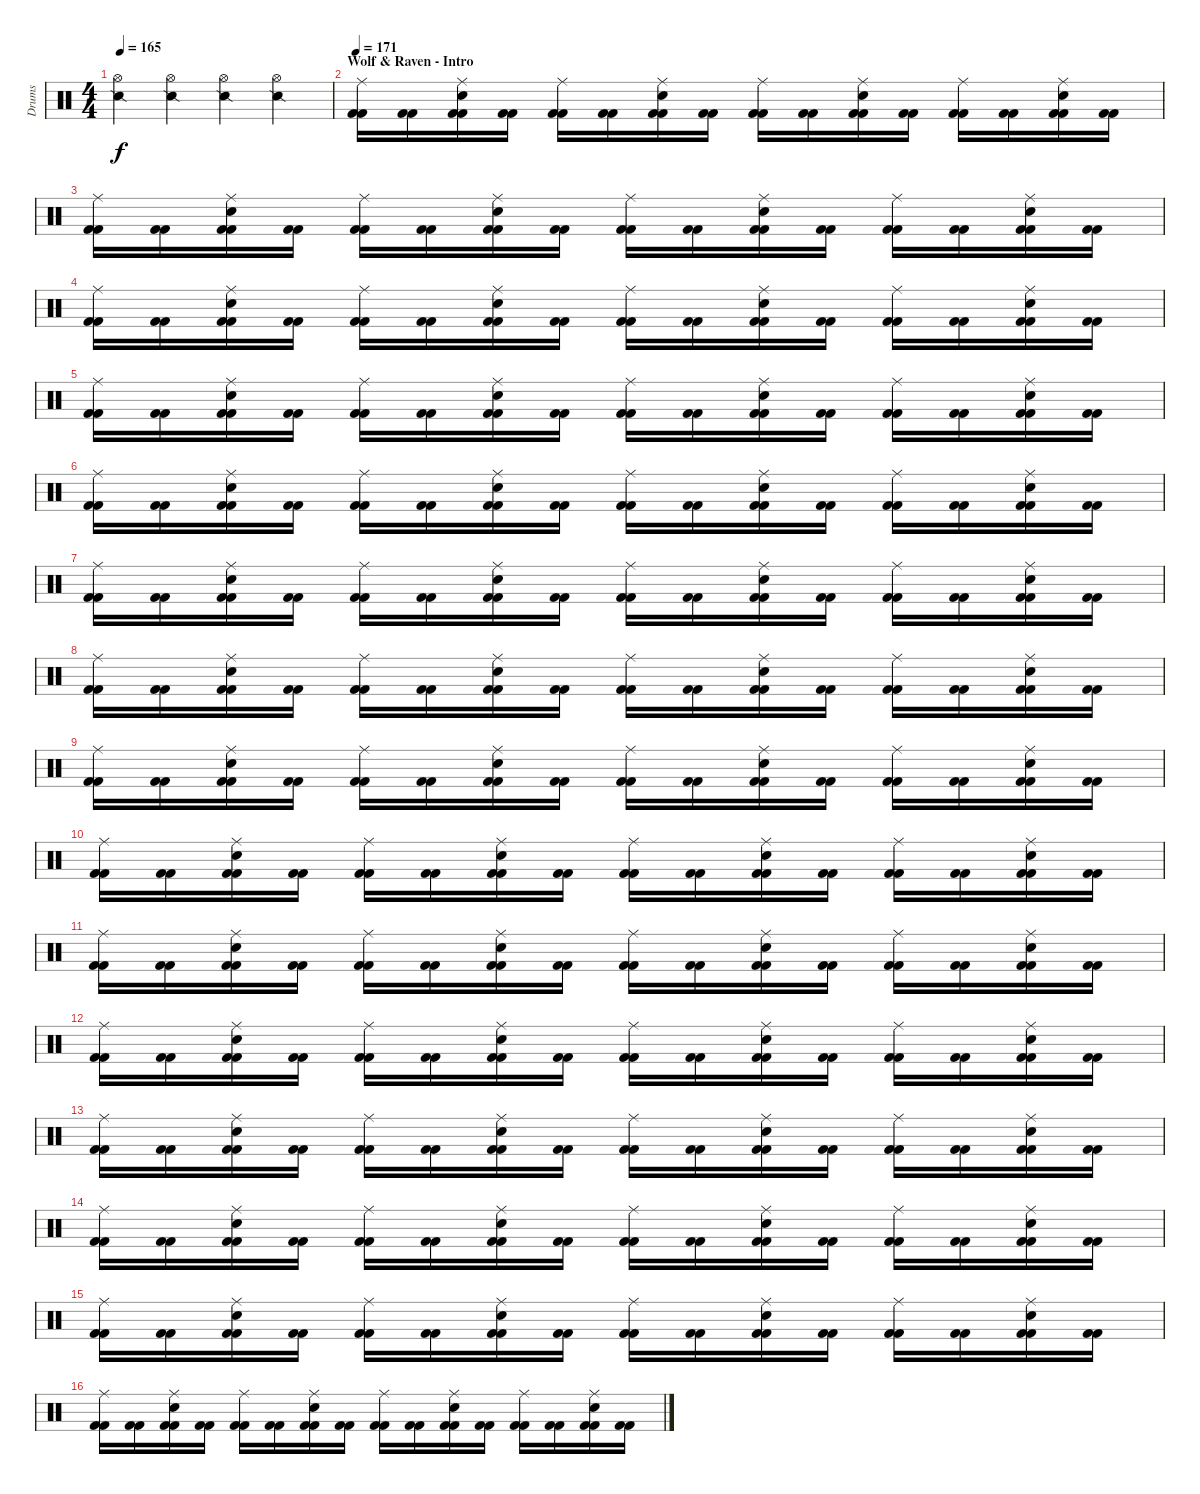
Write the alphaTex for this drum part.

\track ("Drums" "Drums") {instrument percussion}
\staff {score}
\articulation defaults
\ts (4 4)
\tempo 165
\clef neutral
\ks c
("Snare (side stick) 2" "Hi-Hat (open)").4{dy f} ("Snare (side stick) 2" "Hi-Hat (open)").4 ("Snare (side stick) 2" "Hi-Hat (open)").4 ("Snare (side stick) 2" "Hi-Hat (open)").4 |
\section ("" "Wolf & Raven - Intro")
\tempo 171
("Kick (hit) 2" "Kick (hit) 2" "Ride (middle)").16 ("Kick (hit) 2" "Kick (hit) 2").16 ("Kick (hit) 2" "Kick (hit) 2" "Electric Snare (hit)" "Ride (middle)").16 ("Kick (hit) 2" "Kick (hit) 2").16 ("Kick (hit) 2" "Kick (hit) 2" "Ride (middle)").16 ("Kick (hit) 2" "Kick (hit) 2").16 ("Kick (hit) 2" "Kick (hit) 2" "Electric Snare (hit)" "Ride (middle)").16 ("Kick (hit) 2" "Kick (hit) 2").16 ("Kick (hit) 2" "Kick (hit) 2" "Ride (middle)").16 ("Kick (hit) 2" "Kick (hit) 2").16 ("Kick (hit) 2" "Kick (hit) 2" "Electric Snare (hit)" "Ride (middle)").16 ("Kick (hit) 2" "Kick (hit) 2").16 ("Kick (hit) 2" "Kick (hit) 2" "Ride (middle)").16 ("Kick (hit) 2" "Kick (hit) 2").16 ("Kick (hit) 2" "Kick (hit) 2" "Electric Snare (hit)" "Ride (middle)").16 ("Kick (hit) 2" "Kick (hit) 2").16 |
("Kick (hit) 2" "Kick (hit) 2" "Ride (middle)").16 ("Kick (hit) 2" "Kick (hit) 2").16 ("Kick (hit) 2" "Kick (hit) 2" "Electric Snare (hit)" "Ride (middle)").16 ("Kick (hit) 2" "Kick (hit) 2").16 ("Kick (hit) 2" "Kick (hit) 2" "Ride (middle)").16 ("Kick (hit) 2" "Kick (hit) 2").16 ("Kick (hit) 2" "Kick (hit) 2" "Electric Snare (hit)" "Ride (middle)").16 ("Kick (hit) 2" "Kick (hit) 2").16 ("Kick (hit) 2" "Kick (hit) 2" "Ride (middle)").16 ("Kick (hit) 2" "Kick (hit) 2").16 ("Kick (hit) 2" "Kick (hit) 2" "Electric Snare (hit)" "Ride (middle)").16 ("Kick (hit) 2" "Kick (hit) 2").16 ("Kick (hit) 2" "Kick (hit) 2" "Ride (middle)").16 ("Kick (hit) 2" "Kick (hit) 2").16 ("Kick (hit) 2" "Kick (hit) 2" "Electric Snare (hit)" "Ride (middle)").16 ("Kick (hit) 2" "Kick (hit) 2").16 |
("Kick (hit) 2" "Kick (hit) 2" "Ride (middle)").16 ("Kick (hit) 2" "Kick (hit) 2").16 ("Kick (hit) 2" "Kick (hit) 2" "Electric Snare (hit)" "Ride (middle)").16 ("Kick (hit) 2" "Kick (hit) 2").16 ("Kick (hit) 2" "Kick (hit) 2" "Ride (middle)").16 ("Kick (hit) 2" "Kick (hit) 2").16 ("Kick (hit) 2" "Kick (hit) 2" "Electric Snare (hit)" "Ride (middle)").16 ("Kick (hit) 2" "Kick (hit) 2").16 ("Kick (hit) 2" "Kick (hit) 2" "Ride (middle)").16 ("Kick (hit) 2" "Kick (hit) 2").16 ("Kick (hit) 2" "Kick (hit) 2" "Electric Snare (hit)" "Ride (middle)").16 ("Kick (hit) 2" "Kick (hit) 2").16 ("Kick (hit) 2" "Kick (hit) 2" "Ride (middle)").16 ("Kick (hit) 2" "Kick (hit) 2").16 ("Kick (hit) 2" "Kick (hit) 2" "Electric Snare (hit)" "Ride (middle)").16 ("Kick (hit) 2" "Kick (hit) 2").16 |
("Kick (hit) 2" "Kick (hit) 2" "Ride (middle)").16 ("Kick (hit) 2" "Kick (hit) 2").16 ("Kick (hit) 2" "Kick (hit) 2" "Electric Snare (hit)" "Ride (middle)").16 ("Kick (hit) 2" "Kick (hit) 2").16 ("Kick (hit) 2" "Kick (hit) 2" "Ride (middle)").16 ("Kick (hit) 2" "Kick (hit) 2").16 ("Kick (hit) 2" "Kick (hit) 2" "Electric Snare (hit)" "Ride (middle)").16 ("Kick (hit) 2" "Kick (hit) 2").16 ("Kick (hit) 2" "Kick (hit) 2" "Ride (middle)").16 ("Kick (hit) 2" "Kick (hit) 2").16 ("Kick (hit) 2" "Kick (hit) 2" "Electric Snare (hit)" "Ride (middle)").16 ("Kick (hit) 2" "Kick (hit) 2").16 ("Kick (hit) 2" "Kick (hit) 2" "Ride (middle)").16 ("Kick (hit) 2" "Kick (hit) 2").16 ("Kick (hit) 2" "Kick (hit) 2" "Electric Snare (hit)" "Ride (middle)").16 ("Kick (hit) 2" "Kick (hit) 2").16 |
("Kick (hit) 2" "Kick (hit) 2" "Ride (middle)").16 ("Kick (hit) 2" "Kick (hit) 2").16 ("Kick (hit) 2" "Kick (hit) 2" "Electric Snare (hit)" "Ride (middle)").16 ("Kick (hit) 2" "Kick (hit) 2").16 ("Kick (hit) 2" "Kick (hit) 2" "Ride (middle)").16 ("Kick (hit) 2" "Kick (hit) 2").16 ("Kick (hit) 2" "Kick (hit) 2" "Electric Snare (hit)" "Ride (middle)").16 ("Kick (hit) 2" "Kick (hit) 2").16 ("Kick (hit) 2" "Kick (hit) 2" "Ride (middle)").16 ("Kick (hit) 2" "Kick (hit) 2").16 ("Kick (hit) 2" "Kick (hit) 2" "Electric Snare (hit)" "Ride (middle)").16 ("Kick (hit) 2" "Kick (hit) 2").16 ("Kick (hit) 2" "Kick (hit) 2" "Ride (middle)").16 ("Kick (hit) 2" "Kick (hit) 2").16 ("Kick (hit) 2" "Kick (hit) 2" "Electric Snare (hit)" "Ride (middle)").16 ("Kick (hit) 2" "Kick (hit) 2").16 |
("Kick (hit) 2" "Kick (hit) 2" "Ride (middle)").16 ("Kick (hit) 2" "Kick (hit) 2").16 ("Kick (hit) 2" "Kick (hit) 2" "Electric Snare (hit)" "Ride (middle)").16 ("Kick (hit) 2" "Kick (hit) 2").16 ("Kick (hit) 2" "Kick (hit) 2" "Ride (middle)").16 ("Kick (hit) 2" "Kick (hit) 2").16 ("Kick (hit) 2" "Kick (hit) 2" "Electric Snare (hit)" "Ride (middle)").16 ("Kick (hit) 2" "Kick (hit) 2").16 ("Kick (hit) 2" "Kick (hit) 2" "Ride (middle)").16 ("Kick (hit) 2" "Kick (hit) 2").16 ("Kick (hit) 2" "Kick (hit) 2" "Electric Snare (hit)" "Ride (middle)").16 ("Kick (hit) 2" "Kick (hit) 2").16 ("Kick (hit) 2" "Kick (hit) 2" "Ride (middle)").16 ("Kick (hit) 2" "Kick (hit) 2").16 ("Kick (hit) 2" "Kick (hit) 2" "Electric Snare (hit)" "Ride (middle)").16 ("Kick (hit) 2" "Kick (hit) 2").16 |
("Kick (hit) 2" "Kick (hit) 2" "Ride (middle)").16 ("Kick (hit) 2" "Kick (hit) 2").16 ("Kick (hit) 2" "Kick (hit) 2" "Electric Snare (hit)" "Ride (middle)").16 ("Kick (hit) 2" "Kick (hit) 2").16 ("Kick (hit) 2" "Kick (hit) 2" "Ride (middle)").16 ("Kick (hit) 2" "Kick (hit) 2").16 ("Kick (hit) 2" "Kick (hit) 2" "Electric Snare (hit)" "Ride (middle)").16 ("Kick (hit) 2" "Kick (hit) 2").16 ("Kick (hit) 2" "Kick (hit) 2" "Ride (middle)").16 ("Kick (hit) 2" "Kick (hit) 2").16 ("Kick (hit) 2" "Kick (hit) 2" "Electric Snare (hit)" "Ride (middle)").16 ("Kick (hit) 2" "Kick (hit) 2").16 ("Kick (hit) 2" "Kick (hit) 2" "Ride (middle)").16 ("Kick (hit) 2" "Kick (hit) 2").16 ("Kick (hit) 2" "Kick (hit) 2" "Electric Snare (hit)" "Ride (middle)").16 ("Kick (hit) 2" "Kick (hit) 2").16 |
("Kick (hit) 2" "Kick (hit) 2" "Ride (middle)").16 ("Kick (hit) 2" "Kick (hit) 2").16 ("Kick (hit) 2" "Kick (hit) 2" "Electric Snare (hit)" "Ride (middle)").16 ("Kick (hit) 2" "Kick (hit) 2").16 ("Kick (hit) 2" "Kick (hit) 2" "Ride (middle)").16 ("Kick (hit) 2" "Kick (hit) 2").16 ("Kick (hit) 2" "Kick (hit) 2" "Electric Snare (hit)" "Ride (middle)").16 ("Kick (hit) 2" "Kick (hit) 2").16 ("Kick (hit) 2" "Kick (hit) 2" "Ride (middle)").16 ("Kick (hit) 2" "Kick (hit) 2").16 ("Kick (hit) 2" "Kick (hit) 2" "Electric Snare (hit)" "Ride (middle)").16 ("Kick (hit) 2" "Kick (hit) 2").16 ("Kick (hit) 2" "Kick (hit) 2" "Ride (middle)").16 ("Kick (hit) 2" "Kick (hit) 2").16 ("Kick (hit) 2" "Kick (hit) 2" "Electric Snare (hit)" "Ride (middle)").16 ("Kick (hit) 2" "Kick (hit) 2").16 |
("Kick (hit) 2" "Kick (hit) 2" "Ride (middle)").16 ("Kick (hit) 2" "Kick (hit) 2").16 ("Kick (hit) 2" "Kick (hit) 2" "Electric Snare (hit)" "Ride (middle)").16 ("Kick (hit) 2" "Kick (hit) 2").16 ("Kick (hit) 2" "Kick (hit) 2" "Ride (middle)").16 ("Kick (hit) 2" "Kick (hit) 2").16 ("Kick (hit) 2" "Kick (hit) 2" "Electric Snare (hit)" "Ride (middle)").16 ("Kick (hit) 2" "Kick (hit) 2").16 ("Kick (hit) 2" "Kick (hit) 2" "Ride (middle)").16 ("Kick (hit) 2" "Kick (hit) 2").16 ("Kick (hit) 2" "Kick (hit) 2" "Electric Snare (hit)" "Ride (middle)").16 ("Kick (hit) 2" "Kick (hit) 2").16 ("Kick (hit) 2" "Kick (hit) 2" "Ride (middle)").16 ("Kick (hit) 2" "Kick (hit) 2").16 ("Kick (hit) 2" "Kick (hit) 2" "Electric Snare (hit)" "Ride (middle)").16 ("Kick (hit) 2" "Kick (hit) 2").16 |
("Kick (hit) 2" "Kick (hit) 2" "Ride (middle)").16 ("Kick (hit) 2" "Kick (hit) 2").16 ("Kick (hit) 2" "Kick (hit) 2" "Electric Snare (hit)" "Ride (middle)").16 ("Kick (hit) 2" "Kick (hit) 2").16 ("Kick (hit) 2" "Kick (hit) 2" "Ride (middle)").16 ("Kick (hit) 2" "Kick (hit) 2").16 ("Kick (hit) 2" "Kick (hit) 2" "Electric Snare (hit)" "Ride (middle)").16 ("Kick (hit) 2" "Kick (hit) 2").16 ("Kick (hit) 2" "Kick (hit) 2" "Ride (middle)").16 ("Kick (hit) 2" "Kick (hit) 2").16 ("Kick (hit) 2" "Kick (hit) 2" "Electric Snare (hit)" "Ride (middle)").16 ("Kick (hit) 2" "Kick (hit) 2").16 ("Kick (hit) 2" "Kick (hit) 2" "Ride (middle)").16 ("Kick (hit) 2" "Kick (hit) 2").16 ("Kick (hit) 2" "Kick (hit) 2" "Electric Snare (hit)" "Ride (middle)").16 ("Kick (hit) 2" "Kick (hit) 2").16 |
("Kick (hit) 2" "Kick (hit) 2" "Ride (middle)").16 ("Kick (hit) 2" "Kick (hit) 2").16 ("Kick (hit) 2" "Kick (hit) 2" "Electric Snare (hit)" "Ride (middle)").16 ("Kick (hit) 2" "Kick (hit) 2").16 ("Kick (hit) 2" "Kick (hit) 2" "Ride (middle)").16 ("Kick (hit) 2" "Kick (hit) 2").16 ("Kick (hit) 2" "Kick (hit) 2" "Electric Snare (hit)" "Ride (middle)").16 ("Kick (hit) 2" "Kick (hit) 2").16 ("Kick (hit) 2" "Kick (hit) 2" "Ride (middle)").16 ("Kick (hit) 2" "Kick (hit) 2").16 ("Kick (hit) 2" "Kick (hit) 2" "Electric Snare (hit)" "Ride (middle)").16 ("Kick (hit) 2" "Kick (hit) 2").16 ("Kick (hit) 2" "Kick (hit) 2" "Ride (middle)").16 ("Kick (hit) 2" "Kick (hit) 2").16 ("Kick (hit) 2" "Kick (hit) 2" "Electric Snare (hit)" "Ride (middle)").16 ("Kick (hit) 2" "Kick (hit) 2").16 |
("Kick (hit) 2" "Kick (hit) 2" "Ride (middle)").16 ("Kick (hit) 2" "Kick (hit) 2").16 ("Kick (hit) 2" "Kick (hit) 2" "Electric Snare (hit)" "Ride (middle)").16 ("Kick (hit) 2" "Kick (hit) 2").16 ("Kick (hit) 2" "Kick (hit) 2" "Ride (middle)").16 ("Kick (hit) 2" "Kick (hit) 2").16 ("Kick (hit) 2" "Kick (hit) 2" "Electric Snare (hit)" "Ride (middle)").16 ("Kick (hit) 2" "Kick (hit) 2").16 ("Kick (hit) 2" "Kick (hit) 2" "Ride (middle)").16 ("Kick (hit) 2" "Kick (hit) 2").16 ("Kick (hit) 2" "Kick (hit) 2" "Electric Snare (hit)" "Ride (middle)").16 ("Kick (hit) 2" "Kick (hit) 2").16 ("Kick (hit) 2" "Kick (hit) 2" "Ride (middle)").16 ("Kick (hit) 2" "Kick (hit) 2").16 ("Kick (hit) 2" "Kick (hit) 2" "Electric Snare (hit)" "Ride (middle)").16 ("Kick (hit) 2" "Kick (hit) 2").16 |
("Kick (hit) 2" "Kick (hit) 2" "Ride (middle)").16 ("Kick (hit) 2" "Kick (hit) 2").16 ("Kick (hit) 2" "Kick (hit) 2" "Electric Snare (hit)" "Ride (middle)").16 ("Kick (hit) 2" "Kick (hit) 2").16 ("Kick (hit) 2" "Kick (hit) 2" "Ride (middle)").16 ("Kick (hit) 2" "Kick (hit) 2").16 ("Kick (hit) 2" "Kick (hit) 2" "Electric Snare (hit)" "Ride (middle)").16 ("Kick (hit) 2" "Kick (hit) 2").16 ("Kick (hit) 2" "Kick (hit) 2" "Ride (middle)").16 ("Kick (hit) 2" "Kick (hit) 2").16 ("Kick (hit) 2" "Kick (hit) 2" "Electric Snare (hit)" "Ride (middle)").16 ("Kick (hit) 2" "Kick (hit) 2").16 ("Kick (hit) 2" "Kick (hit) 2" "Ride (middle)").16 ("Kick (hit) 2" "Kick (hit) 2").16 ("Kick (hit) 2" "Kick (hit) 2" "Electric Snare (hit)" "Ride (middle)").16 ("Kick (hit) 2" "Kick (hit) 2").16 |
("Kick (hit) 2" "Kick (hit) 2" "Ride (middle)").16 ("Kick (hit) 2" "Kick (hit) 2").16 ("Kick (hit) 2" "Kick (hit) 2" "Electric Snare (hit)" "Ride (middle)").16 ("Kick (hit) 2" "Kick (hit) 2").16 ("Kick (hit) 2" "Kick (hit) 2" "Ride (middle)").16 ("Kick (hit) 2" "Kick (hit) 2").16 ("Kick (hit) 2" "Kick (hit) 2" "Electric Snare (hit)" "Ride (middle)").16 ("Kick (hit) 2" "Kick (hit) 2").16 ("Kick (hit) 2" "Kick (hit) 2" "Ride (middle)").16 ("Kick (hit) 2" "Kick (hit) 2").16 ("Kick (hit) 2" "Kick (hit) 2" "Electric Snare (hit)" "Ride (middle)").16 ("Kick (hit) 2" "Kick (hit) 2").16 ("Kick (hit) 2" "Kick (hit) 2" "Ride (middle)").16 ("Kick (hit) 2" "Kick (hit) 2").16 ("Kick (hit) 2" "Kick (hit) 2" "Electric Snare (hit)" "Ride (middle)").16 ("Kick (hit) 2" "Kick (hit) 2").16 |
("Kick (hit) 2" "Kick (hit) 2" "Ride (middle)").16 ("Kick (hit) 2" "Kick (hit) 2").16 ("Kick (hit) 2" "Kick (hit) 2" "Electric Snare (hit)" "Ride (middle)").16 ("Kick (hit) 2" "Kick (hit) 2").16 ("Kick (hit) 2" "Kick (hit) 2" "Ride (middle)").16 ("Kick (hit) 2" "Kick (hit) 2").16 ("Kick (hit) 2" "Kick (hit) 2" "Electric Snare (hit)" "Ride (middle)").16 ("Kick (hit) 2" "Kick (hit) 2").16 ("Kick (hit) 2" "Kick (hit) 2" "Ride (middle)").16 ("Kick (hit) 2" "Kick (hit) 2").16 ("Kick (hit) 2" "Kick (hit) 2" "Electric Snare (hit)" "Ride (middle)").16 ("Kick (hit) 2" "Kick (hit) 2").16 ("Kick (hit) 2" "Kick (hit) 2" "Ride (middle)").16 ("Kick (hit) 2" "Kick (hit) 2").16 ("Kick (hit) 2" "Kick (hit) 2" "Electric Snare (hit)" "Ride (middle)").16 ("Kick (hit) 2" "Kick (hit) 2").16
